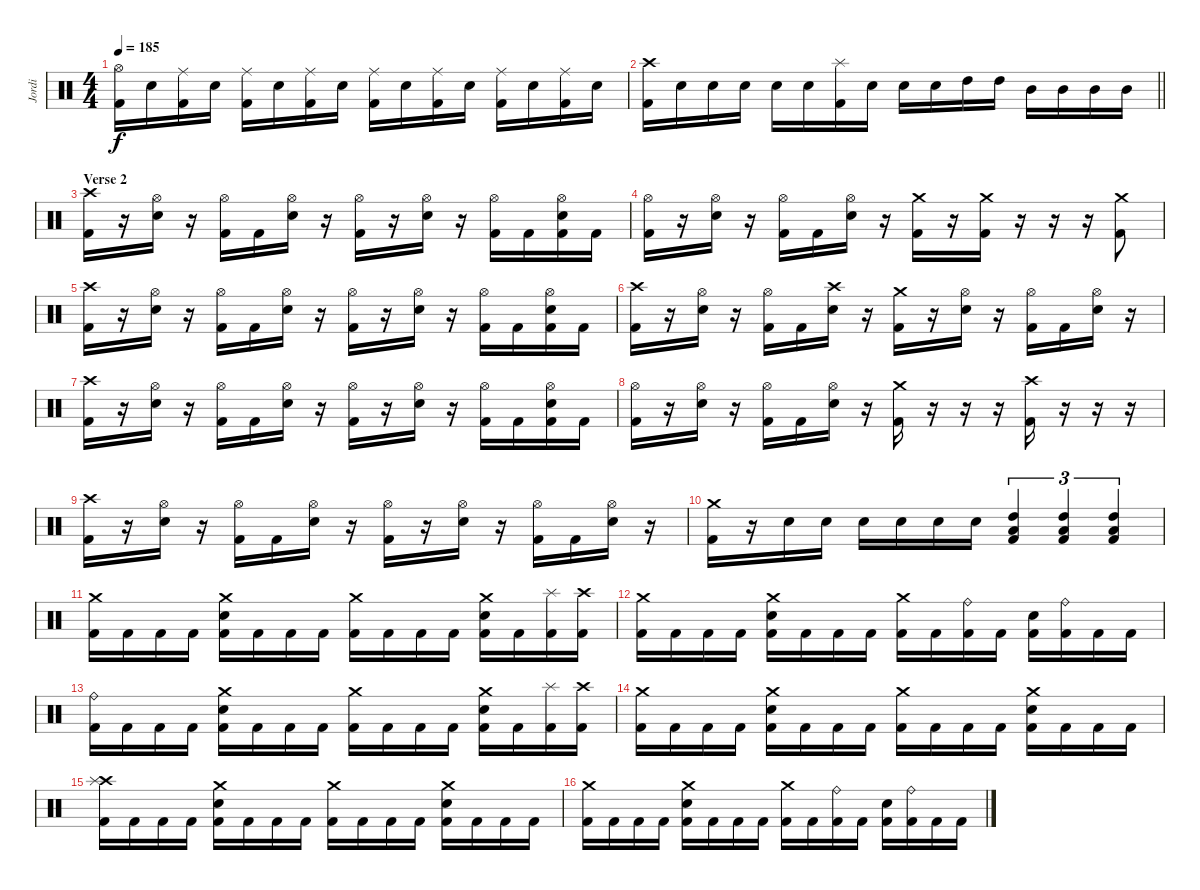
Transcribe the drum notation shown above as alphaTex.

\track ("Jordi" "Jordi") {instrument percussion}
\staff {score}
\articulation defaults
\ts (4 4)
\tempo 185
\clef neutral
\ks c
("Hi-Hat (open)" "Kick (hit) 2").16{dy f} "Snare (hit) 2".16 ("Ride (middle)" "Kick (hit) 2").16 "Snare (hit) 2".16 ("Ride (middle)" "Kick (hit) 2").16 "Snare (hit) 2".16 ("Ride (middle)" "Kick (hit) 2").16 "Snare (hit) 2".16 ("Ride (middle)" "Kick (hit) 2").16 "Snare (hit) 2".16 ("Ride (middle)" "Kick (hit) 2").16 "Snare (hit) 2".16 ("Ride (middle)" "Kick (hit) 2").16 "Snare (hit) 2".16 ("Ride (middle)" "Kick (hit) 2").16 "Snare (hit) 2".16 |
\barLineRight lightlight
("Crash high (hit)" "Kick (hit) 2").16 "Snare (hit) 2".16 "Snare (hit) 2".16 "Snare (hit) 2".16 "Snare (hit) 2".16 "Snare (hit) 2".16 ("Splash (hit)" "Kick (hit) 2").16 "Snare (hit) 2".16 "Snare (hit) 2".16 "Snare (hit) 2".16 "High Tom (hit)".16 "High Tom (hit)".16 "Mid Tom (hit)".16 "Mid Tom (hit)".16 "Mid Tom (hit)".16 "Mid Tom (hit)".16 |
\section ("" "Verse 2")
("Crash high (hit)" "Kick (hit) 2").16 r.16 ("Hi-Hat (open)" "Snare (hit) 2").16 r.16 ("Hi-Hat (open)" "Kick (hit) 2").16 "Kick (hit) 2".16 ("Hi-Hat (open)" "Snare (hit) 2").16 r.16 ("Hi-Hat (open)" "Kick (hit) 2").16 r.16 ("Hi-Hat (open)" "Snare (hit) 2").16 r.16 ("Hi-Hat (open)" "Kick (hit) 2").16 "Kick (hit) 2".16 ("Hi-Hat (open)" "Snare (hit) 2" "Kick (hit) 2").16 "Kick (hit) 2".16 |
("Hi-Hat (open)" "Kick (hit) 2").16 r.16 ("Hi-Hat (open)" "Snare (hit) 2").16 r.16 ("Hi-Hat (open)" "Kick (hit) 2").16 "Kick (hit) 2".16 ("Hi-Hat (open)" "Snare (hit) 2").16 r.16 ("Crash medium (hit)" "Kick (hit) 2").16 r.16 ("Crash medium (hit)" "Kick (hit) 2").16 r.16 r.16 r.16 ("Crash medium (hit)" "Kick (hit) 2").8 |
("Crash high (hit)" "Kick (hit) 2").16 r.16 ("Hi-Hat (open)" "Snare (hit) 2").16 r.16 ("Hi-Hat (open)" "Kick (hit) 2").16 "Kick (hit) 2".16 ("Hi-Hat (open)" "Snare (hit) 2").16 r.16 ("Hi-Hat (open)" "Kick (hit) 2").16 r.16 ("Hi-Hat (open)" "Snare (hit) 2").16 r.16 ("Hi-Hat (open)" "Kick (hit) 2").16 "Kick (hit) 2".16 ("Hi-Hat (open)" "Snare (hit) 2" "Kick (hit) 2").16 "Kick (hit) 2".16 |
("Crash high (hit)" "Kick (hit) 2").16 r.16 ("Hi-Hat (open)" "Snare (hit) 2").16 r.16 ("Hi-Hat (open)" "Kick (hit) 2").16 "Kick (hit) 2".16 ("Crash high (hit)" "Snare (hit) 2").16 r.16 ("Crash medium (hit)" "Kick (hit) 2").16 r.16 ("Hi-Hat (open)" "Snare (hit) 2").16 r.16 ("Hi-Hat (open)" "Kick (hit) 2").16 "Kick (hit) 2".16 ("Hi-Hat (open)" "Snare (hit) 2").16 r.16 |
("Crash high (hit)" "Kick (hit) 2").16 r.16 ("Hi-Hat (open)" "Snare (hit) 2").16 r.16 ("Hi-Hat (open)" "Kick (hit) 2").16 "Kick (hit) 2".16 ("Hi-Hat (open)" "Snare (hit) 2").16 r.16 ("Hi-Hat (open)" "Kick (hit) 2").16 r.16 ("Hi-Hat (open)" "Snare (hit) 2").16 r.16 ("Hi-Hat (open)" "Kick (hit) 2").16 "Kick (hit) 2".16 ("Hi-Hat (open)" "Snare (hit) 2" "Kick (hit) 2").16 "Kick (hit) 2".16 |
("Hi-Hat (open)" "Kick (hit) 2").16 r.16 ("Hi-Hat (open)" "Snare (hit) 2").16 r.16 ("Hi-Hat (open)" "Kick (hit) 2").16 "Kick (hit) 2".16 ("Hi-Hat (open)" "Snare (hit) 2").16 r.16 ("Crash medium (hit)" "Kick (hit) 2").16 r.16 r.16 r.16 ("Crash high (hit)" "Kick (hit) 2").16 r.16 r.16 r.16 |
("Crash high (hit)" "Kick (hit) 2").16 r.16 ("Hi-Hat (open)" "Snare (hit) 2").16 r.16 ("Hi-Hat (open)" "Kick (hit) 2").16 "Kick (hit) 2".16 ("Hi-Hat (open)" "Snare (hit) 2").16 r.16 ("Hi-Hat (open)" "Kick (hit) 2").16 r.16 ("Hi-Hat (open)" "Snare (hit) 2").16 r.16 ("Hi-Hat (open)" "Kick (hit) 2").16 "Kick (hit) 2".16 ("Hi-Hat (open)" "Snare (hit) 2").16 r.16 |
("Crash medium (hit)" "Kick (hit) 2").16 r.16 "Snare (hit) 2".16 "Snare (hit) 2".16 "Snare (hit) 2".16 "Snare (hit) 2".16 "Snare (hit) 2".16 "Snare (hit) 2".16 ("High Tom (hit)" "Low Tom (hit)" "Kick (hit) 2").4{tu (3 2)} ("High Tom (hit)" "Low Tom (hit)" "Kick (hit) 2").4{tu (3 2)} ("High Tom (hit)" "Low Tom (hit)" "Kick (hit) 2").4{tu (3 2)} |
("Crash medium (hit)" "Kick (hit) 2").16 "Kick (hit) 2".16 "Kick (hit) 2".16 "Kick (hit) 2".16 ("Crash medium (hit)" "Snare (hit) 2" "Kick (hit) 2").16 "Kick (hit) 2".16 "Kick (hit) 2".16 "Kick (hit) 2".16 ("Crash medium (hit)" "Kick (hit) 2").16 "Kick (hit) 2".16 "Kick (hit) 2".16 "Kick (hit) 2".16 ("Crash medium (hit)" "Snare (hit) 2" "Kick (hit) 2").16 "Kick (hit) 2".16 ("Splash (hit)" "Kick (hit) 2").16 ("Crash high (hit)" "Kick (hit) 2").16 |
("Crash medium (hit)" "Kick (hit) 2").16 "Kick (hit) 2".16 "Kick (hit) 2".16 "Kick (hit) 2".16 ("Crash medium (hit)" "Snare (hit) 2" "Kick (hit) 2").16 "Kick (hit) 2".16 "Kick (hit) 2".16 "Kick (hit) 2".16 ("Crash medium (hit)" "Kick (hit) 2").16 "Kick (hit) 2".16 ("Ride (bell)" "Kick (hit) 2").16 "Kick (hit) 2".16 ("Snare (hit) 2" "Kick (hit) 2").16 ("Ride (bell)" "Kick (hit) 2").16 "Kick (hit) 2".16 "Kick (hit) 2".16 |
("Ride (bell)" "Kick (hit) 2").16 "Kick (hit) 2".16 "Kick (hit) 2".16 "Kick (hit) 2".16 ("Crash medium (hit)" "Snare (hit) 2" "Kick (hit) 2").16 "Kick (hit) 2".16 "Kick (hit) 2".16 "Kick (hit) 2".16 ("Crash medium (hit)" "Kick (hit) 2").16 "Kick (hit) 2".16 "Kick (hit) 2".16 "Kick (hit) 2".16 ("Crash medium (hit)" "Snare (hit) 2" "Kick (hit) 2").16 "Kick (hit) 2".16 ("Splash (hit)" "Kick (hit) 2").16 ("Crash high (hit)" "Kick (hit) 2").16 |
("Crash medium (hit)" "Kick (hit) 2").16 "Kick (hit) 2".16 "Kick (hit) 2".16 "Kick (hit) 2".16 ("Crash medium (hit)" "Snare (hit) 2" "Kick (hit) 2").16 "Kick (hit) 2".16 "Kick (hit) 2".16 "Kick (hit) 2".16 ("Crash medium (hit)" "Kick (hit) 2").16 "Kick (hit) 2".16 "Kick (hit) 2".16 "Kick (hit) 2".16 ("Crash medium (hit)" "Snare (hit) 2" "Kick (hit) 2").16 "Kick (hit) 2".16 "Kick (hit) 2".16 "Kick (hit) 2".16 |
("Crash high (hit)" "Splash (hit)" "Kick (hit) 2").16 "Kick (hit) 2".16 "Kick (hit) 2".16 "Kick (hit) 2".16 ("Crash medium (hit)" "Snare (hit) 2" "Kick (hit) 2").16 "Kick (hit) 2".16 "Kick (hit) 2".16 "Kick (hit) 2".16 ("Crash medium (hit)" "Kick (hit) 2").16 "Kick (hit) 2".16 "Kick (hit) 2".16 "Kick (hit) 2".16 ("Crash medium (hit)" "Snare (hit) 2" "Kick (hit) 2").16 "Kick (hit) 2".16 "Kick (hit) 2".16 "Kick (hit) 2".16 |
("Crash medium (hit)" "Kick (hit) 2").16 "Kick (hit) 2".16 "Kick (hit) 2".16 "Kick (hit) 2".16 ("Crash medium (hit)" "Snare (hit) 2" "Kick (hit) 2").16 "Kick (hit) 2".16 "Kick (hit) 2".16 "Kick (hit) 2".16 ("Crash medium (hit)" "Kick (hit) 2").16 "Kick (hit) 2".16 ("Ride (bell)" "Kick (hit) 2").16 "Kick (hit) 2".16 ("Snare (hit) 2" "Kick (hit) 2").16 ("Ride (bell)" "Kick (hit) 2").16 "Kick (hit) 2".16 "Kick (hit) 2".16
